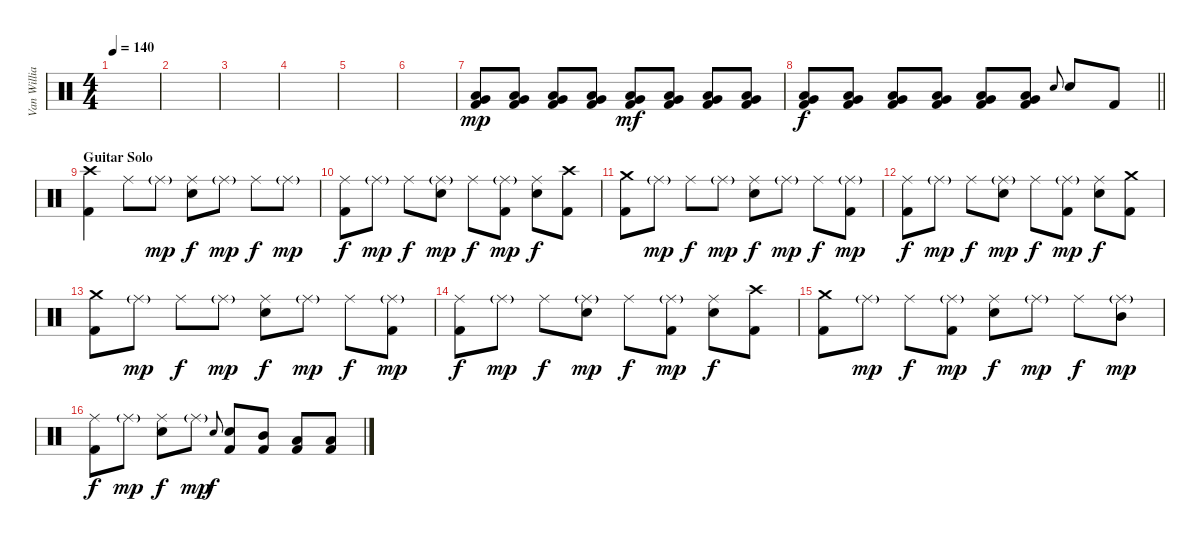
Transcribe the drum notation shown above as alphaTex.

\track ("Van Williams" "Van Willia") {instrument percussion}
\staff {score}
\articulation defaults
\ts (4 4)
\tempo 140
\clef neutral
\ks c
|
|
|
|
|
|
("Low Tom (hit)" "Very Low Tom (hit)" "Kick (hit) 2").8{dy mp} ("Low Tom (hit)" "Very Low Tom (hit)" "Kick (hit) 2").8 ("Low Tom (hit)" "Very Low Tom (hit)" "Kick (hit) 2").8 ("Low Tom (hit)" "Very Low Tom (hit)" "Kick (hit) 2").8 ("Low Tom (hit)" "Very Low Tom (hit)" "Kick (hit) 2").8{dy mf} ("Low Tom (hit)" "Very Low Tom (hit)" "Kick (hit) 2").8 ("Low Tom (hit)" "Very Low Tom (hit)" "Kick (hit) 2").8 ("Low Tom (hit)" "Very Low Tom (hit)" "Kick (hit) 2").8 |
\barLineRight lightlight
("Low Tom (hit)" "Very Low Tom (hit)" "Kick (hit) 2").8{dy f} ("Low Tom (hit)" "Very Low Tom (hit)" "Kick (hit) 2").8 ("Low Tom (hit)" "Very Low Tom (hit)" "Kick (hit) 2").8 ("Low Tom (hit)" "Very Low Tom (hit)" "Kick (hit) 2").8 ("Low Tom (hit)" "Very Low Tom (hit)" "Kick (hit) 2").8 ("Low Tom (hit)" "Very Low Tom (hit)" "Kick (hit) 2").8 "Electric Snare (hit)".8{gr onbeat} "Electric Snare (hit)".8 "Kick (hit) 2".8 |
\section ("" "Guitar Solo")
("Crash high (hit)" "Kick (hit) 2").4 "Ride (middle)".8 "Ride (middle)"{g}.8{dy mp} ("Ride (middle)" "Electric Snare (hit)").8{dy f} "Ride (middle)"{g}.8{dy mp} "Ride (middle)".8{dy f} "Ride (middle)"{g}.8{dy mp} |
("Ride (middle)" "Kick (hit) 2").8{dy f} "Ride (middle)"{g}.8{dy mp} "Ride (middle)".8{dy f} ("Ride (middle)"{g} "Electric Snare (hit)").8{dy mp} "Ride (middle)".8{dy f} ("Ride (middle)"{g} "Kick (hit) 2").8{dy mp} ("Ride (middle)" "Electric Snare (hit)").8{dy f} ("Crash high (hit)" "Kick (hit) 2").8 |
("Crash medium (hit)" "Kick (hit) 2").8 "Ride (middle)"{g}.8{dy mp} "Ride (middle)".8{dy f} "Ride (middle)"{g}.8{dy mp} ("Ride (middle)" "Electric Snare (hit)").8{dy f} "Ride (middle)"{g}.8{dy mp} "Ride (middle)".8{dy f} ("Ride (middle)"{g} "Kick (hit) 2").8{dy mp} |
("Ride (middle)" "Kick (hit) 2").8{dy f} "Ride (middle)"{g}.8{dy mp} "Ride (middle)".8{dy f} ("Ride (middle)"{g} "Electric Snare (hit)").8{dy mp} "Ride (middle)".8{dy f} ("Ride (middle)"{g} "Kick (hit) 2").8{dy mp} ("Ride (middle)" "Electric Snare (hit)").8{dy f} ("Crash medium (hit)" "Kick (hit) 2").8 |
("Crash medium (hit)" "Kick (hit) 2").8 "Ride (middle)"{g}.8{dy mp} "Ride (middle)".8{dy f} "Ride (middle)"{g}.8{dy mp} ("Ride (middle)" "Electric Snare (hit)").8{dy f} "Ride (middle)"{g}.8{dy mp} "Ride (middle)".8{dy f} ("Ride (middle)"{g} "Kick (hit) 2").8{dy mp} |
("Ride (middle)" "Kick (hit) 2").8{dy f} "Ride (middle)"{g}.8{dy mp} "Ride (middle)".8{dy f} ("Ride (middle)"{g} "Electric Snare (hit)").8{dy mp} "Ride (middle)".8{dy f} ("Ride (middle)"{g} "Kick (hit) 2").8{dy mp} ("Ride (middle)" "Electric Snare (hit)").8{dy f} ("Crash high (hit)" "Kick (hit) 2").8 |
("Crash medium (hit)" "Kick (hit) 2").8 "Ride (middle)"{g}.8{dy mp} "Ride (middle)".8{dy f} ("Ride (middle)"{g} "Kick (hit) 2").8{dy mp} ("Ride (middle)" "Electric Snare (hit)").8{dy f} "Ride (middle)"{g}.8{dy mp} "Ride (middle)".8{dy f} ("Ride (middle)"{g} "Mid Tom (hit)").8{dy mp} |
("Ride (middle)" "Kick (hit) 2").8{dy f} "Ride (middle)"{g}.8{dy mp} ("Ride (middle)" "Electric Snare (hit)").8{dy f} "Ride (middle)"{g}.8{dy mp} "Electric Snare (hit)".8{gr onbeat dy f} ("Electric Snare (hit)" "Kick (hit) 2").8 ("Mid Tom (hit)" "Kick (hit) 2").8 ("Low Tom (hit)" "Kick (hit) 2").8 ("Low Tom (hit)" "Kick (hit) 2").8
